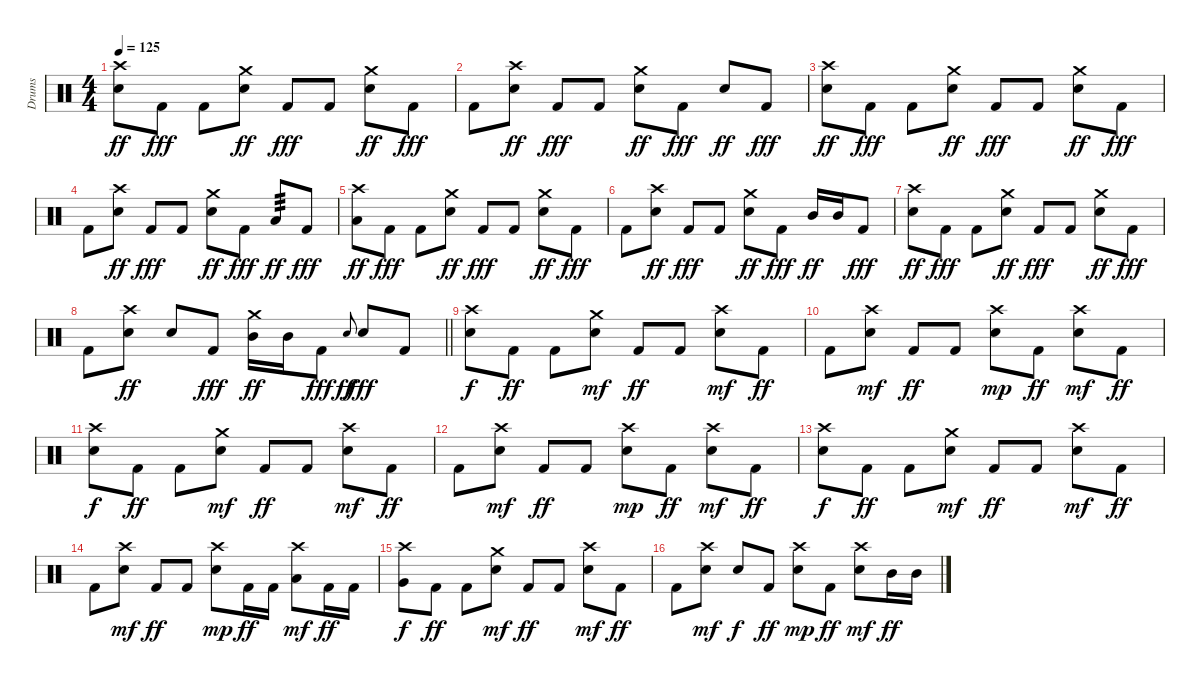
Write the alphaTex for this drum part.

\track ("Drums" "Drums") {instrument percussion}
\staff {score}
\articulation defaults
\ts (4 4)
\section ("" "")
\tempo 125
\clef neutral
\ks c
("Crash high (hit)" "Snare (hit) 2").8{dy ff} "Kick (hit) 2".8{dy fff} "Kick (hit) 2".8 ("Crash medium (hit)" "Snare (hit) 2").8{dy ff} "Kick (hit) 2".8{dy fff} "Kick (hit) 2".8 ("Crash medium (hit)" "Snare (hit) 2").8{dy ff} "Kick (hit) 2".8{dy fff} |
"Kick (hit) 2".8 ("Crash high (hit)" "Snare (hit) 2").8{dy ff} "Kick (hit) 2".8{dy fff} "Kick (hit) 2".8 ("Crash medium (hit)" "Snare (hit) 2").8{dy ff} "Kick (hit) 2".8{dy fff} "Snare (hit) 2".8{dy ff} "Kick (hit) 2".8{dy fff} |
("Crash high (hit)" "Snare (hit) 2").8{dy ff} "Kick (hit) 2".8{dy fff} "Kick (hit) 2".8 ("Crash medium (hit)" "Snare (hit) 2").8{dy ff} "Kick (hit) 2".8{dy fff} "Kick (hit) 2".8 ("Crash medium (hit)" "Snare (hit) 2").8{dy ff} "Kick (hit) 2".8{dy fff} |
"Kick (hit) 2".8 ("Crash high (hit)" "Snare (hit) 2").8{dy ff} "Kick (hit) 2".8{dy fff} "Kick (hit) 2".8 ("Crash medium (hit)" "Snare (hit) 2").8{dy ff} "Kick (hit) 2".8{dy fff} "Low Tom (hit)".8{tp 3 dy ff} "Kick (hit) 2".8{dy fff} |
("Crash high (hit)" "Low Tom (hit)").8{dy ff} "Kick (hit) 2".8{dy fff} "Kick (hit) 2".8 ("Crash medium (hit)" "Snare (hit) 2").8{dy ff} "Kick (hit) 2".8{dy fff} "Kick (hit) 2".8 ("Crash medium (hit)" "Snare (hit) 2").8{dy ff} "Kick (hit) 2".8{dy fff} |
"Kick (hit) 2".8 ("Crash high (hit)" "Snare (hit) 2").8{dy ff} "Kick (hit) 2".8{dy fff} "Kick (hit) 2".8 ("Crash medium (hit)" "Snare (hit) 2").8{dy ff} "Kick (hit) 2".8{dy fff} "Mid Tom (hit)".16{dy ff} "Mid Tom (hit)".16 "Kick (hit) 2".8{dy fff} |
("Crash high (hit)" "Snare (hit) 2").8{dy ff} "Kick (hit) 2".8{dy fff} "Kick (hit) 2".8 ("Crash medium (hit)" "Snare (hit) 2").8{dy ff} "Kick (hit) 2".8{dy fff} "Kick (hit) 2".8 ("Crash medium (hit)" "Snare (hit) 2").8{dy ff} "Kick (hit) 2".8{dy fff} |
\barLineRight lightlight "Kick (hit) 2".8
("Crash high (hit)" "Snare (hit) 2").8{dy ff} "Snare (hit) 2".8 "Kick (hit) 2".8{dy fff} ("Crash medium (hit)" "Mid Tom (hit)").16{dy ff} "Mid Tom (hit)".16 "Kick (hit) 2".8{dy fff} "Snare (hit) 2".8{gr onbeat dy ff} "Snare (hit) 2".8{dy fff} "Kick (hit) 2".8 |
\section ("" "")
("Crash high (hit)" "Snare (hit) 2").8{dy f} "Kick (hit) 2".8{dy ff} "Kick (hit) 2".8 ("Crash medium (hit)" "Snare (hit) 2").8{dy mf} "Kick (hit) 2".8{dy ff} "Kick (hit) 2".8 ("Crash high (hit)" "Snare (hit) 2").8{dy mf} "Kick (hit) 2".8{dy ff} |
"Kick (hit) 2".8 ("Crash high (hit)" "Snare (hit) 2").8{dy mf} "Kick (hit) 2".8{dy ff} "Kick (hit) 2".8 ("Crash high (hit)" "Snare (hit) 2").8{dy mp} "Kick (hit) 2".8{dy ff} ("Crash high (hit)" "Snare (hit) 2").8{dy mf} "Kick (hit) 2".8{dy ff} |
("Crash high (hit)" "Snare (hit) 2").8{dy f} "Kick (hit) 2".8{dy ff} "Kick (hit) 2".8 ("Crash medium (hit)" "Snare (hit) 2").8{dy mf} "Kick (hit) 2".8{dy ff} "Kick (hit) 2".8 ("Crash high (hit)" "Snare (hit) 2").8{dy mf} "Kick (hit) 2".8{dy ff} |
"Kick (hit) 2".8 ("Crash high (hit)" "Snare (hit) 2").8{dy mf} "Kick (hit) 2".8{dy ff} "Kick (hit) 2".8 ("Crash high (hit)" "Snare (hit) 2").8{dy mp} "Kick (hit) 2".8{dy ff} ("Crash high (hit)" "Snare (hit) 2").8{dy mf} "Kick (hit) 2".8{dy ff} |
("Crash high (hit)" "Snare (hit) 2").8{dy f} "Kick (hit) 2".8{dy ff} "Kick (hit) 2".8 ("Crash medium (hit)" "Snare (hit) 2").8{dy mf} "Kick (hit) 2".8{dy ff} "Kick (hit) 2".8 ("Crash high (hit)" "Snare (hit) 2").8{dy mf} "Kick (hit) 2".8{dy ff} |
"Kick (hit) 2".8 ("Crash high (hit)" "Snare (hit) 2").8{dy mf} "Kick (hit) 2".8{dy ff} "Kick (hit) 2".8 ("Crash high (hit)" "Snare (hit) 2").8{dy mp} "Kick (hit) 2".16{dy ff} "Kick (hit) 2".16 ("Crash high (hit)" "Low Tom (hit)").8{dy mf} "Kick (hit) 2".16{dy ff} "Kick (hit) 2".16 |
("Crash high (hit)" "Very Low Tom (hit)").8{dy f} "Kick (hit) 2".8{dy ff} "Kick (hit) 2".8 ("Crash medium (hit)" "Snare (hit) 2").8{dy mf} "Kick (hit) 2".8{dy ff} "Kick (hit) 2".8 ("Crash high (hit)" "Snare (hit) 2").8{dy mf} "Kick (hit) 2".8{dy ff} |
"Kick (hit) 2".8 ("Crash high (hit)" "Snare (hit) 2").8{dy mf} "Snare (hit) 2".8{dy f} "Kick (hit) 2".8{dy ff} ("Crash high (hit)" "Snare (hit) 2").8{dy mp} "Kick (hit) 2".8{dy ff} ("Crash high (hit)" "Snare (hit) 2").8{dy mf} "Mid Tom (hit)".16{dy ff} "Mid Tom (hit)".16
